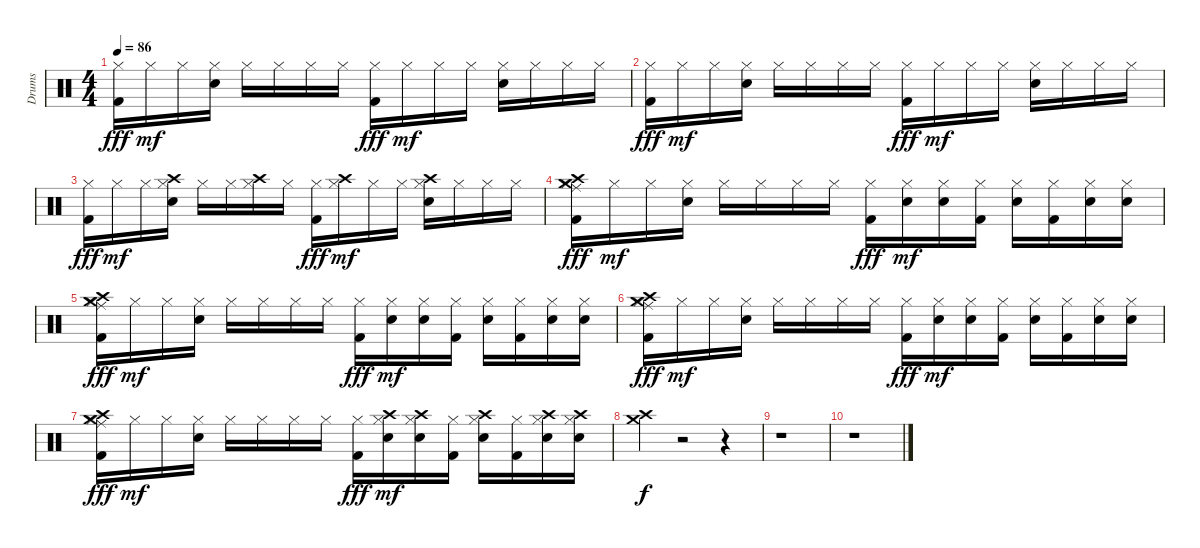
\track ("Drums" "Drums") {instrument percussion}
\staff {score}
\articulation defaults
\ts (4 4)
\tempo 86
\clef neutral
\ks c
("Hi-Hat (closed)" "Kick (hit) 2").16{dy fff} "Hi-Hat (closed)".16{dy mf} "Hi-Hat (closed)".16 ("Hi-Hat (closed)" "Snare (hit) 2").16 "Hi-Hat (closed)".16 "Hi-Hat (closed)".16 "Hi-Hat (closed)".16 "Hi-Hat (closed)".16 ("Hi-Hat (closed)" "Kick (hit) 2").16{dy fff} "Hi-Hat (closed)".16{dy mf} "Hi-Hat (closed)".16 "Hi-Hat (closed)".16 ("Hi-Hat (closed)" "Snare (hit) 2").16 "Hi-Hat (closed)".16 "Hi-Hat (closed)".16 "Hi-Hat (closed)".16 |
("Hi-Hat (closed)" "Kick (hit) 2").16{dy fff} "Hi-Hat (closed)".16{dy mf} "Hi-Hat (closed)".16 ("Hi-Hat (closed)" "Snare (hit) 2").16 "Hi-Hat (closed)".16 "Hi-Hat (closed)".16 "Hi-Hat (closed)".16 "Hi-Hat (closed)".16 ("Hi-Hat (closed)" "Kick (hit) 2").16{dy fff} "Hi-Hat (closed)".16{dy mf} "Hi-Hat (closed)".16 "Hi-Hat (closed)".16 ("Hi-Hat (closed)" "Snare (hit) 2").16 "Hi-Hat (closed)".16 "Hi-Hat (closed)".16 "Hi-Hat (closed)".16 |
("Hi-Hat (closed)" "Kick (hit) 2").16{dy fff} "Hi-Hat (closed)".16{dy mf} "Hi-Hat (closed)".16 ("Hi-Hat (closed)" "Snare (hit) 2" "Crash high (hit)").16 "Hi-Hat (closed)".16 "Hi-Hat (closed)".16 ("Hi-Hat (closed)" "Crash high (hit)").16 "Hi-Hat (closed)".16 ("Hi-Hat (closed)" "Kick (hit) 2").16{dy fff} ("Hi-Hat (closed)" "Crash high (hit)").16{dy mf} "Hi-Hat (closed)".16 "Hi-Hat (closed)".16 ("Hi-Hat (closed)" "Snare (hit) 2" "Crash high (hit)").16 "Hi-Hat (closed)".16 "Hi-Hat (closed)".16 "Hi-Hat (closed)".16 |
("Hi-Hat (closed)" "Crash high (hit)" "Ride (middle)" "Crash medium (hit)" "Kick (hit) 2").16{dy fff} "Hi-Hat (closed)".16{dy mf} "Hi-Hat (closed)".16 ("Hi-Hat (closed)" "Snare (hit) 2").16 "Hi-Hat (closed)".16 "Hi-Hat (closed)".16 "Hi-Hat (closed)".16 "Hi-Hat (closed)".16 ("Hi-Hat (closed)" "Kick (hit) 2").16{dy fff} ("Hi-Hat (closed)" "Snare (hit) 2").16{dy mf} ("Hi-Hat (closed)" "Snare (hit) 2").16 ("Hi-Hat (closed)" "Kick (hit) 2").16 ("Hi-Hat (closed)" "Snare (hit) 2").16 ("Hi-Hat (closed)" "Kick (hit) 2").16 ("Hi-Hat (closed)" "Snare (hit) 2").16 ("Hi-Hat (closed)" "Snare (hit) 2").16 |
("Hi-Hat (closed)" "Crash high (hit)" "Ride (middle)" "Crash medium (hit)" "Kick (hit) 2").16{dy fff} "Hi-Hat (closed)".16{dy mf} "Hi-Hat (closed)".16 ("Hi-Hat (closed)" "Snare (hit) 2").16 "Hi-Hat (closed)".16 "Hi-Hat (closed)".16 "Hi-Hat (closed)".16 "Hi-Hat (closed)".16 ("Hi-Hat (closed)" "Kick (hit) 2").16{dy fff} ("Hi-Hat (closed)" "Snare (hit) 2").16{dy mf} ("Hi-Hat (closed)" "Snare (hit) 2").16 ("Hi-Hat (closed)" "Kick (hit) 2").16 ("Hi-Hat (closed)" "Snare (hit) 2").16 ("Hi-Hat (closed)" "Kick (hit) 2").16 ("Hi-Hat (closed)" "Snare (hit) 2").16 ("Hi-Hat (closed)" "Snare (hit) 2").16 |
("Hi-Hat (closed)" "Crash high (hit)" "Ride (middle)" "Crash medium (hit)" "Kick (hit) 2").16{dy fff} "Hi-Hat (closed)".16{dy mf} "Hi-Hat (closed)".16 ("Hi-Hat (closed)" "Snare (hit) 2").16 "Hi-Hat (closed)".16 "Hi-Hat (closed)".16 "Hi-Hat (closed)".16 "Hi-Hat (closed)".16 ("Hi-Hat (closed)" "Kick (hit) 2").16{dy fff} ("Hi-Hat (closed)" "Snare (hit) 2").16{dy mf} ("Hi-Hat (closed)" "Snare (hit) 2").16 ("Hi-Hat (closed)" "Kick (hit) 2").16 ("Hi-Hat (closed)" "Snare (hit) 2").16 ("Hi-Hat (closed)" "Kick (hit) 2").16 ("Hi-Hat (closed)" "Snare (hit) 2").16 ("Hi-Hat (closed)" "Snare (hit) 2").16 |
("Hi-Hat (closed)" "Crash high (hit)" "Ride (middle)" "Crash medium (hit)" "Kick (hit) 2").16{dy fff} "Hi-Hat (closed)".16{dy mf} "Hi-Hat (closed)".16 ("Hi-Hat (closed)" "Snare (hit) 2").16 "Hi-Hat (closed)".16 "Hi-Hat (closed)".16 "Hi-Hat (closed)".16 "Hi-Hat (closed)".16 ("Hi-Hat (closed)" "Kick (hit) 2").16{dy fff} ("Hi-Hat (closed)" "Snare (hit) 2" "Crash high (hit)").16{dy mf} ("Hi-Hat (closed)" "Snare (hit) 2" "Crash high (hit)").16 ("Hi-Hat (closed)" "Kick (hit) 2").16 ("Hi-Hat (closed)" "Snare (hit) 2" "Crash high (hit)").16 ("Hi-Hat (closed)" "Kick (hit) 2").16 ("Hi-Hat (closed)" "Snare (hit) 2" "Crash high (hit)").16 ("Hi-Hat (closed)" "Snare (hit) 2" "Crash high (hit)").16 |
("Crash high (hit)" "Crash medium (hit)").4{dy f} r.2 r.4 |
r.1 |
r.1
